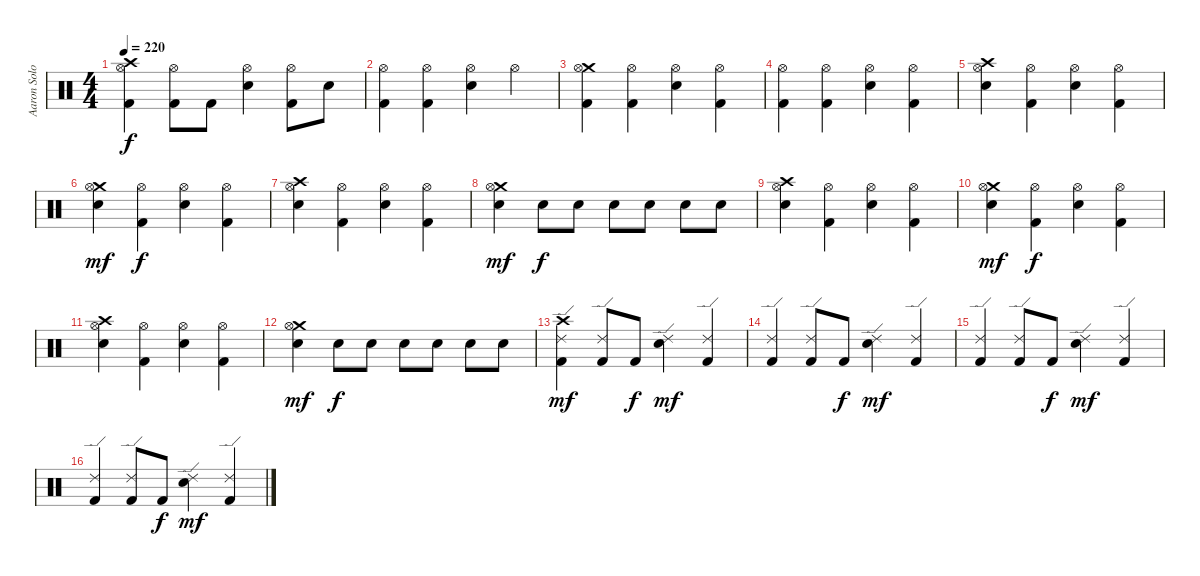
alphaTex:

\track ("Aaron Solowoniuk" "Aaron Solo") {instrument percussion}
\staff {score}
\articulation defaults
\ts (4 4)
\tempo 220
\clef neutral
\ks c
("Crash high (hit)" "Hi-Hat (open)" "Kick (hit) 2").4{dy f} ("Hi-Hat (open)" "Kick (hit) 2").8 "Kick (hit) 2".8 ("Hi-Hat (open)" "Snare (hit) 2").4 ("Hi-Hat (open)" "Kick (hit) 2").8 "Snare (hit) 2".8 |
("Hi-Hat (open)" "Kick (hit) 2").4 ("Hi-Hat (open)" "Kick (hit) 2").4 ("Hi-Hat (open)" "Snare (hit) 2").4 "Hi-Hat (open)".4 |
("Crash medium (hit)" "Hi-Hat (open)" "Kick (hit) 2").4 ("Hi-Hat (open)" "Kick (hit) 2").4 ("Hi-Hat (open)" "Snare (hit) 2").4 ("Hi-Hat (open)" "Kick (hit) 2").4 |
("Hi-Hat (open)" "Kick (hit) 2").4 ("Hi-Hat (open)" "Kick (hit) 2").4 ("Hi-Hat (open)" "Snare (hit) 2").4 ("Hi-Hat (open)" "Kick (hit) 2").4 |
("Crash high (hit)" "Hi-Hat (open)" "Snare (hit) 2").4 ("Hi-Hat (open)" "Kick (hit) 2").4 ("Hi-Hat (open)" "Snare (hit) 2").4 ("Hi-Hat (open)" "Kick (hit) 2").4 |
("Crash medium (hit)" "Hi-Hat (open)" "Snare (hit) 2").4{dy mf} ("Hi-Hat (open)" "Kick (hit) 2").4{dy f} ("Hi-Hat (open)" "Snare (hit) 2").4 ("Hi-Hat (open)" "Kick (hit) 2").4 |
("Crash high (hit)" "Hi-Hat (open)" "Snare (hit) 2").4 ("Hi-Hat (open)" "Kick (hit) 2").4 ("Hi-Hat (open)" "Snare (hit) 2").4 ("Hi-Hat (open)" "Kick (hit) 2").4 |
("Crash medium (hit)" "Hi-Hat (open)" "Snare (hit) 2").4{dy mf} "Snare (hit) 2".8{dy f} "Snare (hit) 2".8 "Snare (hit) 2".8 "Snare (hit) 2".8 "Snare (hit) 2".8 "Snare (hit) 2".8 |
("Crash high (hit)" "Hi-Hat (open)" "Snare (hit) 2").4 ("Hi-Hat (open)" "Kick (hit) 2").4 ("Hi-Hat (open)" "Snare (hit) 2").4 ("Hi-Hat (open)" "Kick (hit) 2").4 |
("Crash medium (hit)" "Hi-Hat (open)" "Snare (hit) 2").4{dy mf} ("Hi-Hat (open)" "Kick (hit) 2").4{dy f} ("Hi-Hat (open)" "Snare (hit) 2").4 ("Hi-Hat (open)" "Kick (hit) 2").4 |
("Crash high (hit)" "Hi-Hat (open)" "Snare (hit) 2").4 ("Hi-Hat (open)" "Kick (hit) 2").4 ("Hi-Hat (open)" "Snare (hit) 2").4 ("Hi-Hat (open)" "Kick (hit) 2").4 |
("Crash medium (hit)" "Hi-Hat (open)" "Snare (hit) 2").4{dy mf} "Snare (hit) 2".8{dy f} "Snare (hit) 2".8 "Snare (hit) 2".8 "Snare (hit) 2".8 "Snare (hit) 2".8 "Snare (hit) 2".8 |
("Crash high (hit)" "Ride (edge) 2" "Kick (hit) 2").4{dy mf} ("Ride (edge) 2" "Kick (hit) 2").8 "Kick (hit) 2".8{dy f} ("Ride (edge) 2" "Snare (hit) 2").4{dy mf} ("Ride (edge) 2" "Kick (hit) 2").4 |
("Ride (edge) 2" "Kick (hit) 2").4 ("Ride (edge) 2" "Kick (hit) 2").8 "Kick (hit) 2".8{dy f} ("Ride (edge) 2" "Snare (hit) 2").4{dy mf} ("Ride (edge) 2" "Kick (hit) 2").4 |
("Ride (edge) 2" "Kick (hit) 2").4 ("Ride (edge) 2" "Kick (hit) 2").8 "Kick (hit) 2".8{dy f} ("Ride (edge) 2" "Snare (hit) 2").4{dy mf} ("Ride (edge) 2" "Kick (hit) 2").4 |
("Ride (edge) 2" "Kick (hit) 2").4 ("Ride (edge) 2" "Kick (hit) 2").8 "Kick (hit) 2".8{dy f} ("Ride (edge) 2" "Snare (hit) 2").4{dy mf} ("Ride (edge) 2" "Kick (hit) 2").4
